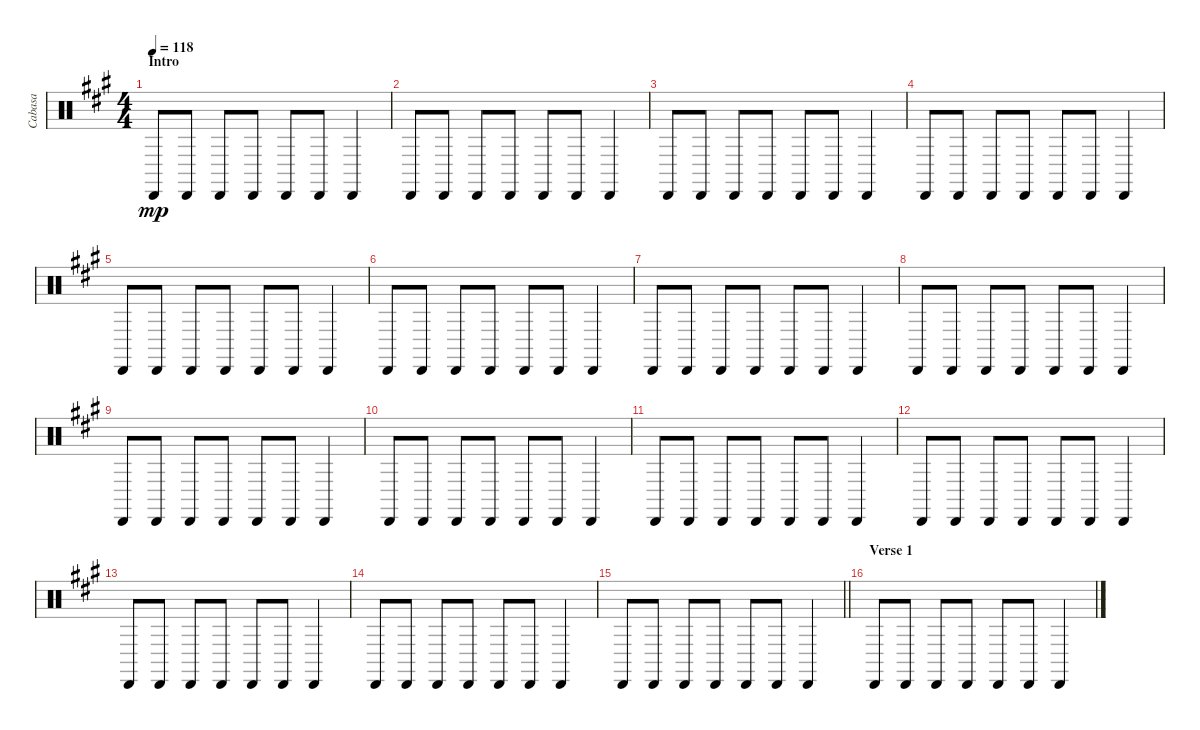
\track ("Cabasa" "Cabasa") {instrument percussion}
\staff {score}
\articulation defaults
\ts (4 4)
\section ("" "Intro")
\tempo 118
\clef neutral
\ks a "Cabasa (hit)".8{dy mp} "Cabasa (hit)".8 "Cabasa (hit)".8 "Cabasa (hit)".8 "Cabasa (hit)".8 "Cabasa (hit)".8 "Cabasa (hit)".4
|
"Cabasa (hit)".8 "Cabasa (hit)".8 "Cabasa (hit)".8 "Cabasa (hit)".8 "Cabasa (hit)".8 "Cabasa (hit)".8 "Cabasa (hit)".4 |
"Cabasa (hit)".8 "Cabasa (hit)".8 "Cabasa (hit)".8 "Cabasa (hit)".8 "Cabasa (hit)".8 "Cabasa (hit)".8 "Cabasa (hit)".4 |
"Cabasa (hit)".8 "Cabasa (hit)".8 "Cabasa (hit)".8 "Cabasa (hit)".8 "Cabasa (hit)".8 "Cabasa (hit)".8 "Cabasa (hit)".4 |
"Cabasa (hit)".8 "Cabasa (hit)".8 "Cabasa (hit)".8 "Cabasa (hit)".8 "Cabasa (hit)".8 "Cabasa (hit)".8 "Cabasa (hit)".4 |
"Cabasa (hit)".8 "Cabasa (hit)".8 "Cabasa (hit)".8 "Cabasa (hit)".8 "Cabasa (hit)".8 "Cabasa (hit)".8 "Cabasa (hit)".4 |
"Cabasa (hit)".8 "Cabasa (hit)".8 "Cabasa (hit)".8 "Cabasa (hit)".8 "Cabasa (hit)".8 "Cabasa (hit)".8 "Cabasa (hit)".4 |
"Cabasa (hit)".8 "Cabasa (hit)".8 "Cabasa (hit)".8 "Cabasa (hit)".8 "Cabasa (hit)".8 "Cabasa (hit)".8 "Cabasa (hit)".4 |
"Cabasa (hit)".8 "Cabasa (hit)".8 "Cabasa (hit)".8 "Cabasa (hit)".8 "Cabasa (hit)".8 "Cabasa (hit)".8 "Cabasa (hit)".4 |
"Cabasa (hit)".8 "Cabasa (hit)".8 "Cabasa (hit)".8 "Cabasa (hit)".8 "Cabasa (hit)".8 "Cabasa (hit)".8 "Cabasa (hit)".4 |
"Cabasa (hit)".8 "Cabasa (hit)".8 "Cabasa (hit)".8 "Cabasa (hit)".8 "Cabasa (hit)".8 "Cabasa (hit)".8 "Cabasa (hit)".4 |
"Cabasa (hit)".8 "Cabasa (hit)".8 "Cabasa (hit)".8 "Cabasa (hit)".8 "Cabasa (hit)".8 "Cabasa (hit)".8 "Cabasa (hit)".4 |
"Cabasa (hit)".8 "Cabasa (hit)".8 "Cabasa (hit)".8 "Cabasa (hit)".8 "Cabasa (hit)".8 "Cabasa (hit)".8 "Cabasa (hit)".4 |
"Cabasa (hit)".8 "Cabasa (hit)".8 "Cabasa (hit)".8 "Cabasa (hit)".8 "Cabasa (hit)".8 "Cabasa (hit)".8 "Cabasa (hit)".4 |
\barLineRight lightlight "Cabasa (hit)".8 "Cabasa (hit)".8 "Cabasa (hit)".8 "Cabasa (hit)".8 "Cabasa (hit)".8 "Cabasa (hit)".8 "Cabasa (hit)".4
|
\section ("" "Verse 1")
"Cabasa (hit)".8 "Cabasa (hit)".8 "Cabasa (hit)".8 "Cabasa (hit)".8 "Cabasa (hit)".8 "Cabasa (hit)".8 "Cabasa (hit)".4
